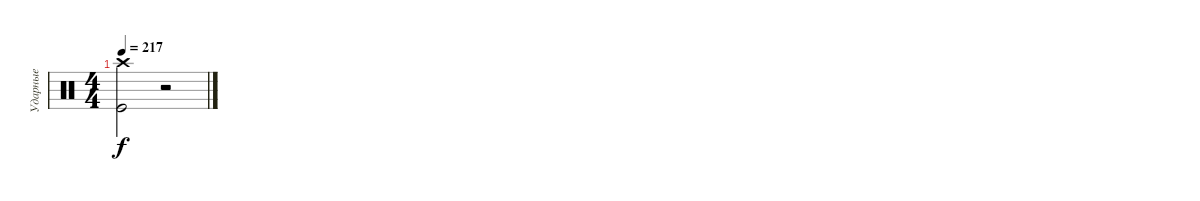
\track ("Ударные" "Ударные") {instrument percussion}
\staff {score}
\articulation defaults
\ts (4 4)
\tempo 217
\clef neutral
\ks c
("Kick (hit)" "Crash high (hit)").2{dy f} r.2
